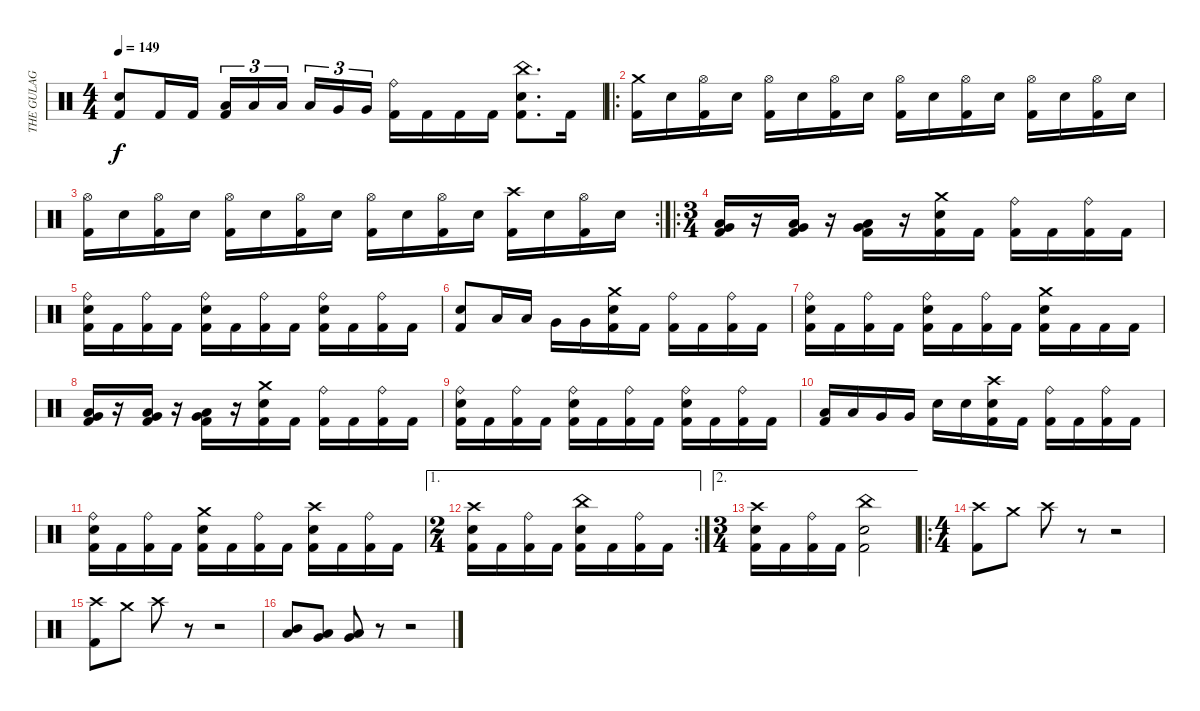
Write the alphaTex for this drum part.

\track ("THE GULAG" "THE GULAG") {instrument percussion}
\staff {score}
\articulation defaults
\ts (4 4)
\tempo 149
\clef neutral
\ks c
("Snare (hit) 2" "Kick (hit) 2").8{dy f} "Kick (hit) 2".16 "Kick (hit) 2".16 ("Low Tom (hit)" "Kick (hit) 2").16{tu (3 2)} "Low Tom (hit)".16{tu (3 2)} "Low Tom (hit)".16{tu (3 2) beam splitsecondary} "Low Tom (hit)".16{tu (3 2)} "Very Low Tom (hit)".16{tu (3 2)} "Very Low Tom (hit)".16{tu (3 2)} ("Ride (bell)" "Kick (hit) 2").16 "Kick (hit) 2".16 "Kick (hit) 2".16 "Kick (hit) 2".16 ("China (hit)" "Snare (hit) 2" "Kick (hit) 2").8{d} "Kick (hit) 2".16 |
\ro
("Crash medium (hit)" "Kick (hit) 2").16 "Snare (hit) 2".16 ("Hi-Hat (open)" "Kick (hit) 2").16 "Snare (hit) 2".16 ("Hi-Hat (open)" "Kick (hit) 2").16 "Snare (hit) 2".16 ("Hi-Hat (open)" "Kick (hit) 2").16 "Snare (hit) 2".16 ("Hi-Hat (open)" "Kick (hit) 2").16 "Snare (hit) 2".16 ("Hi-Hat (open)" "Kick (hit) 2").16 "Snare (hit) 2".16 ("Hi-Hat (open)" "Kick (hit) 2").16 "Snare (hit) 2".16 ("Hi-Hat (open)" "Kick (hit) 2").16 "Snare (hit) 2".16 |
\rc 2
("Hi-Hat (open)" "Kick (hit) 2").16 "Snare (hit) 2".16 ("Hi-Hat (open)" "Kick (hit) 2").16 "Snare (hit) 2".16 ("Hi-Hat (open)" "Kick (hit) 2").16 "Snare (hit) 2".16 ("Hi-Hat (open)" "Kick (hit) 2").16 "Snare (hit) 2".16 ("Hi-Hat (open)" "Kick (hit) 2").16 "Snare (hit) 2".16 ("Hi-Hat (open)" "Kick (hit) 2").16 "Snare (hit) 2".16 ("Crash high (hit)" "Kick (hit) 2").16 "Snare (hit) 2".16 ("Hi-Hat (open)" "Kick (hit) 2").16 "Snare (hit) 2".16 |
\ro
\ts (3 4)
("Low Floor Tom (hit)" "Very Low Tom (hit)" "Kick (hit) 2").16 r.16 ("Low Floor Tom (hit)" "Very Low Tom (hit)" "Kick (hit) 2").16 r.16 ("Low Floor Tom (hit)" "Very Low Tom (hit)" "Kick (hit) 2").16 r.16 ("Crash medium (hit)" "Snare (hit) 2" "Kick (hit) 2").16 "Kick (hit) 2".16 ("Ride (bell)" "Kick (hit) 2").16 "Kick (hit) 2".16 ("Ride (bell)" "Kick (hit) 2").16 "Kick (hit) 2".16 |
("Ride (bell)" "Snare (hit) 2" "Kick (hit) 2").16 "Kick (hit) 2".16 ("Ride (bell)" "Kick (hit) 2").16 "Kick (hit) 2".16 ("Ride (bell)" "Snare (hit) 2" "Kick (hit) 2").16 "Kick (hit) 2".16 ("Ride (bell)" "Kick (hit) 2").16 "Kick (hit) 2".16 ("Ride (bell)" "Snare (hit) 2" "Kick (hit) 2").16 "Kick (hit) 2".16 ("Ride (bell)" "Kick (hit) 2").16 "Kick (hit) 2".16 |
("Snare (hit) 2" "Kick (hit) 2").8 "Low Tom (hit)".16 "Low Tom (hit)".16 "Very Low Tom (hit)".16 "Very Low Tom (hit)".16 ("Crash medium (hit)" "Snare (hit) 2" "Kick (hit) 2").16 "Kick (hit) 2".16 ("Ride (bell)" "Kick (hit) 2").16 "Kick (hit) 2".16 ("Ride (bell)" "Kick (hit) 2").16 "Kick (hit) 2".16 |
("Ride (bell)" "Snare (hit) 2" "Kick (hit) 2").16 "Kick (hit) 2".16 ("Ride (bell)" "Kick (hit) 2").16 "Kick (hit) 2".16 ("Ride (bell)" "Snare (hit) 2" "Kick (hit) 2").16 "Kick (hit) 2".16 ("Ride (bell)" "Kick (hit) 2").16 "Kick (hit) 2".16 ("Crash medium (hit)" "Snare (hit) 2" "Kick (hit) 2").16 "Kick (hit) 2".16 "Kick (hit) 2".16 "Kick (hit) 2".16 |
("Low Floor Tom (hit)" "Very Low Tom (hit)" "Kick (hit) 2").16 r.16 ("Low Floor Tom (hit)" "Very Low Tom (hit)" "Kick (hit) 2").16 r.16 ("Low Floor Tom (hit)" "Very Low Tom (hit)" "Kick (hit) 2").16 r.16 ("Crash medium (hit)" "Snare (hit) 2" "Kick (hit) 2").16 "Kick (hit) 2".16 ("Ride (bell)" "Kick (hit) 2").16 "Kick (hit) 2".16 ("Ride (bell)" "Kick (hit) 2").16 "Kick (hit) 2".16 |
("Ride (bell)" "Snare (hit) 2" "Kick (hit) 2").16 "Kick (hit) 2".16 ("Ride (bell)" "Kick (hit) 2").16 "Kick (hit) 2".16 ("Ride (bell)" "Snare (hit) 2" "Kick (hit) 2").16 "Kick (hit) 2".16 ("Ride (bell)" "Kick (hit) 2").16 "Kick (hit) 2".16 ("Ride (bell)" "Snare (hit) 2" "Kick (hit) 2").16 "Kick (hit) 2".16 ("Ride (bell)" "Kick (hit) 2").16 "Kick (hit) 2".16 |
("Low Tom (hit)" "Kick (hit) 2").16 "Low Tom (hit)".16 "Very Low Tom (hit)".16 "Very Low Tom (hit)".16 "Snare (hit) 2".16 "Snare (hit) 2".16 ("Crash high (hit)" "Snare (hit) 2" "Kick (hit) 2").16 "Kick (hit) 2".16 ("Ride (bell)" "Kick (hit) 2").16 "Kick (hit) 2".16 ("Ride (bell)" "Kick (hit) 2").16 "Kick (hit) 2".16 |
("Ride (bell)" "Snare (hit) 2" "Kick (hit) 2").16 "Kick (hit) 2".16 ("Ride (bell)" "Kick (hit) 2").16 "Kick (hit) 2".16 ("Crash medium (hit)" "Snare (hit) 2" "Kick (hit) 2").16 "Kick (hit) 2".16 ("Ride (bell)" "Kick (hit) 2").16 "Kick (hit) 2".16 ("Crash high (hit)" "Snare (hit) 2" "Kick (hit) 2").16 "Kick (hit) 2".16 ("Ride (bell)" "Kick (hit) 2").16 "Kick (hit) 2".16 |
\ae 1
\rc 2
\ts (2 4)
("Crash high (hit)" "Snare (hit) 2" "Kick (hit) 2").16 "Kick (hit) 2".16 ("Ride (bell)" "Kick (hit) 2").16 "Kick (hit) 2".16 ("China (hit)" "Snare (hit) 2" "Kick (hit) 2").16 "Kick (hit) 2".16 ("Ride (bell)" "Kick (hit) 2").16 "Kick (hit) 2".16 |
\ae 2
\ts (3 4)
("Crash high (hit)" "Snare (hit) 2" "Kick (hit) 2").16 "Kick (hit) 2".16 ("Ride (bell)" "Kick (hit) 2").16 "Kick (hit) 2".16 ("China (hit)" "Snare (hit) 2" "Kick (hit) 2").2 |
\ro
\ts (4 4)
("Crash high (hit)" "Kick (hit) 2").8 "Crash medium (hit)".8 "Crash high (hit)".8 r.8 r.2 |
("Crash high (hit)" "Kick (hit) 2").8 "Crash medium (hit)".8 "Crash high (hit)".8 r.8 r.2 |
("Mid Tom (hit)" "Low Tom (hit)").8 ("Low Tom (hit)" "Very Low Tom (hit)").8 ("Very Low Tom (hit)" "Low Floor Tom (hit)").8 r.8 r.2
